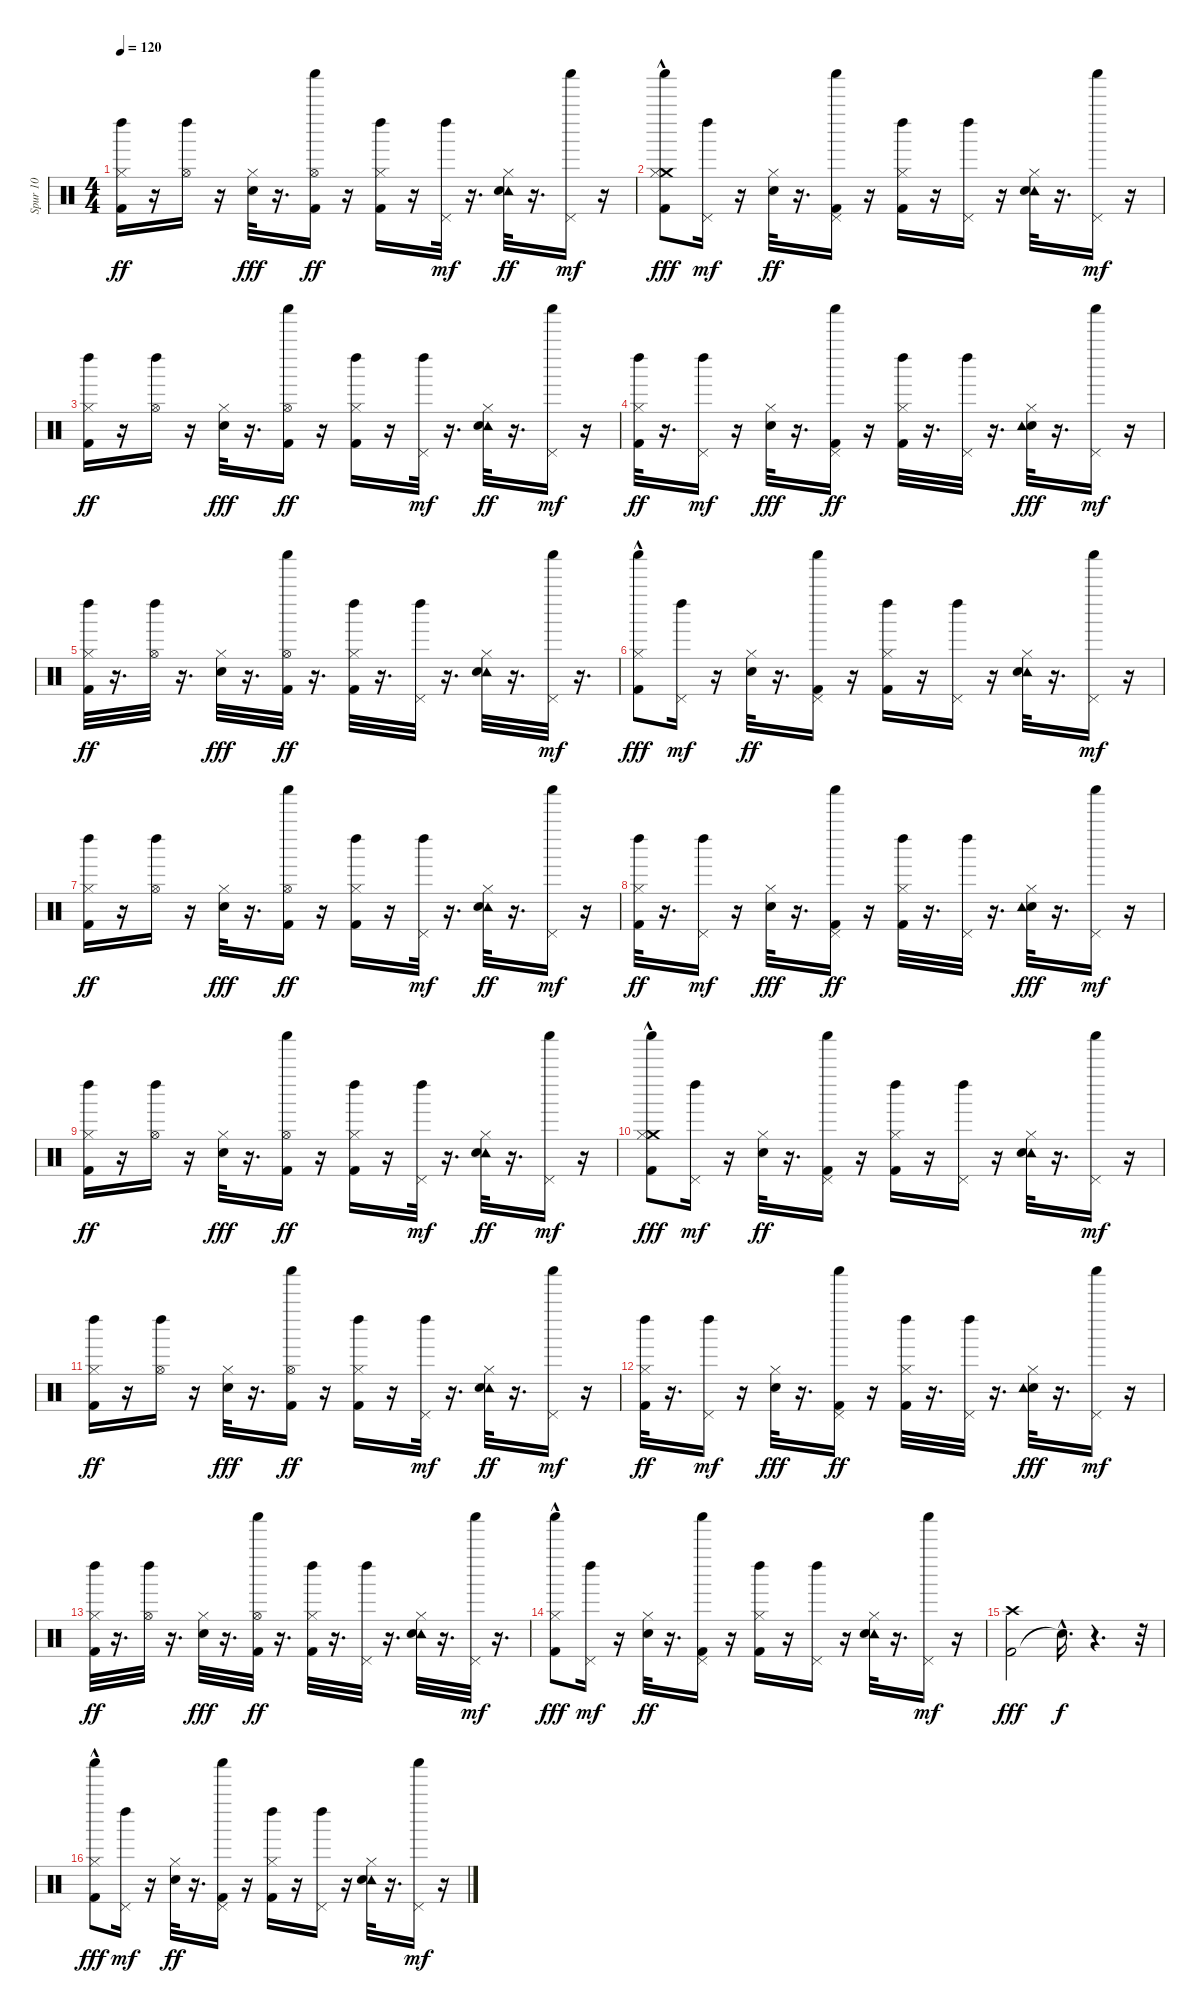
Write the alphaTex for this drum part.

\track ("Spur 10" "Spur 10") {instrument percussion}
\staff {score}
\articulation defaults
\ts (4 4)
\tempo 120
\clef neutral
\ks c
("Kick (hit) 2" "Hi-Hat (closed)" "Left Maraca (hit)").16{dy ff} r.16 ("Left Maraca (hit)" "Hi-Hat (open)").16 r.16 ("Hi-Hat (closed)" "Electric Snare (hit)").32{dy fff} r.16{d} ("Shaker (hit)" "Hi-Hat (open)" "Kick (hit) 2").16{dy ff} r.16 ("Left Maraca (hit)" "Hi-Hat (closed)" "Kick (hit) 2").16 r.16 ("Left Maraca (hit)" "Pedal Hi-Hat (hit)").32{dy mf} r.16{d} ("Tambourine (hit)" "Electric Snare (hit)" "Hi-Hat (closed)").32{dy ff} r.16{d} ("Shaker (hit)" "Pedal Hi-Hat (hit)").16{dy mf} r.16 |
("Crash medium (hit)" "Shaker (hit)"{hac} "Kick (hit) 2" "Hi-Hat (closed)").8{dy fff} ("Left Maraca (hit)" "Pedal Hi-Hat (hit)").16{dy mf} r.16 ("Electric Snare (hit)" "Hi-Hat (closed)").32{dy ff} r.16{d} ("Shaker (hit)" "Kick (hit) 2" "Pedal Hi-Hat (hit)").16 r.16 ("Left Maraca (hit)" "Hi-Hat (closed)" "Kick (hit) 2").16 r.16 ("Left Maraca (hit)" "Pedal Hi-Hat (hit)").16 r.16 ("Tambourine (hit)" "Electric Snare (hit)" "Hi-Hat (closed)").32 r.16{d} ("Pedal Hi-Hat (hit)" "Shaker (hit)").16{dy mf} r.16 |
("Kick (hit) 2" "Hi-Hat (closed)" "Left Maraca (hit)").16{dy ff} r.16 ("Left Maraca (hit)" "Hi-Hat (open)").16 r.16 ("Hi-Hat (closed)" "Electric Snare (hit)").32{dy fff} r.16{d} ("Shaker (hit)" "Hi-Hat (open)" "Kick (hit) 2").16{dy ff} r.16 ("Left Maraca (hit)" "Hi-Hat (closed)" "Kick (hit) 2").16 r.16 ("Left Maraca (hit)" "Pedal Hi-Hat (hit)").32{dy mf} r.16{d} ("Tambourine (hit)" "Electric Snare (hit)" "Hi-Hat (closed)").32{dy ff} r.16{d} ("Shaker (hit)" "Pedal Hi-Hat (hit)").16{dy mf} r.16 |
("Kick (hit) 2" "Hi-Hat (closed)" "Left Maraca (hit)").32{dy ff} r.16{d} ("Left Maraca (hit)" "Pedal Hi-Hat (hit)").16{dy mf} r.16 ("Hi-Hat (closed)" "Electric Snare (hit)").32{dy fff} r.16{d} ("Shaker (hit)" "Kick (hit) 2" "Pedal Hi-Hat (hit)").16{dy ff} r.16 ("Left Maraca (hit)" "Hi-Hat (closed)" "Kick (hit) 2").32 r.16{d} ("Pedal Hi-Hat (hit)" "Left Maraca (hit)").32 r.16{d} ("Hi-Hat (closed)" "Electric Snare (hit)" "Tambourine (hit)").32{dy fff} r.16{d} ("Shaker (hit)" "Pedal Hi-Hat (hit)").16{dy mf} r.16 |
("Kick (hit) 2" "Hi-Hat (closed)" "Left Maraca (hit)").32{dy ff} r.16{d} ("Left Maraca (hit)" "Hi-Hat (open)").32 r.16{d} ("Electric Snare (hit)" "Hi-Hat (closed)").32{dy fff} r.16{d} ("Hi-Hat (open)" "Kick (hit) 2" "Shaker (hit)").32{dy ff} r.16{d} ("Left Maraca (hit)" "Hi-Hat (closed)" "Kick (hit) 2").32 r.16{d} ("Left Maraca (hit)" "Pedal Hi-Hat (hit)").32 r.16{d} ("Tambourine (hit)" "Electric Snare (hit)" "Hi-Hat (closed)").32 r.16{d} ("Pedal Hi-Hat (hit)" "Shaker (hit)").32{dy mf} r.16{d} |
("Shaker (hit)"{hac} "Kick (hit) 2" "Hi-Hat (closed)").8{dy fff} ("Left Maraca (hit)" "Pedal Hi-Hat (hit)").16{dy mf} r.16 ("Electric Snare (hit)" "Hi-Hat (closed)").32{dy ff} r.16{d} ("Shaker (hit)" "Kick (hit) 2" "Pedal Hi-Hat (hit)").16 r.16 ("Left Maraca (hit)" "Hi-Hat (closed)" "Kick (hit) 2").16 r.16 ("Left Maraca (hit)" "Pedal Hi-Hat (hit)").16 r.16 ("Tambourine (hit)" "Electric Snare (hit)" "Hi-Hat (closed)").32 r.16{d} ("Pedal Hi-Hat (hit)" "Shaker (hit)").16{dy mf} r.16 |
("Kick (hit) 2" "Hi-Hat (closed)" "Left Maraca (hit)").16{dy ff} r.16 ("Left Maraca (hit)" "Hi-Hat (open)").16 r.16 ("Hi-Hat (closed)" "Electric Snare (hit)").32{dy fff} r.16{d} ("Shaker (hit)" "Hi-Hat (open)" "Kick (hit) 2").16{dy ff} r.16 ("Left Maraca (hit)" "Hi-Hat (closed)" "Kick (hit) 2").16 r.16 ("Left Maraca (hit)" "Pedal Hi-Hat (hit)").32{dy mf} r.16{d} ("Tambourine (hit)" "Electric Snare (hit)" "Hi-Hat (closed)").32{dy ff} r.16{d} ("Shaker (hit)" "Pedal Hi-Hat (hit)").16{dy mf} r.16 |
("Kick (hit) 2" "Hi-Hat (closed)" "Left Maraca (hit)").32{dy ff} r.16{d} ("Left Maraca (hit)" "Pedal Hi-Hat (hit)").16{dy mf} r.16 ("Hi-Hat (closed)" "Electric Snare (hit)").32{dy fff} r.16{d} ("Shaker (hit)" "Kick (hit) 2" "Pedal Hi-Hat (hit)").16{dy ff} r.16 ("Left Maraca (hit)" "Hi-Hat (closed)" "Kick (hit) 2").32 r.16{d} ("Pedal Hi-Hat (hit)" "Left Maraca (hit)").32 r.16{d} ("Hi-Hat (closed)" "Electric Snare (hit)" "Tambourine (hit)").32{dy fff} r.16{d} ("Shaker (hit)" "Pedal Hi-Hat (hit)").16{dy mf} r.16 |
("Kick (hit) 2" "Hi-Hat (closed)" "Left Maraca (hit)").16{dy ff} r.16 ("Left Maraca (hit)" "Hi-Hat (open)").16 r.16 ("Hi-Hat (closed)" "Electric Snare (hit)").32{dy fff} r.16{d} ("Shaker (hit)" "Hi-Hat (open)" "Kick (hit) 2").16{dy ff} r.16 ("Left Maraca (hit)" "Hi-Hat (closed)" "Kick (hit) 2").16 r.16 ("Left Maraca (hit)" "Pedal Hi-Hat (hit)").32{dy mf} r.16{d} ("Tambourine (hit)" "Electric Snare (hit)" "Hi-Hat (closed)").32{dy ff} r.16{d} ("Shaker (hit)" "Pedal Hi-Hat (hit)").16{dy mf} r.16 |
("Crash medium (hit)" "Shaker (hit)"{hac} "Kick (hit) 2" "Hi-Hat (closed)").8{dy fff} ("Left Maraca (hit)" "Pedal Hi-Hat (hit)").16{dy mf} r.16 ("Electric Snare (hit)" "Hi-Hat (closed)").32{dy ff} r.16{d} ("Shaker (hit)" "Kick (hit) 2" "Pedal Hi-Hat (hit)").16 r.16 ("Left Maraca (hit)" "Hi-Hat (closed)" "Kick (hit) 2").16 r.16 ("Left Maraca (hit)" "Pedal Hi-Hat (hit)").16 r.16 ("Tambourine (hit)" "Electric Snare (hit)" "Hi-Hat (closed)").32 r.16{d} ("Pedal Hi-Hat (hit)" "Shaker (hit)").16{dy mf} r.16 |
("Kick (hit) 2" "Hi-Hat (closed)" "Left Maraca (hit)").16{dy ff} r.16 ("Left Maraca (hit)" "Hi-Hat (open)").16 r.16 ("Hi-Hat (closed)" "Electric Snare (hit)").32{dy fff} r.16{d} ("Shaker (hit)" "Hi-Hat (open)" "Kick (hit) 2").16{dy ff} r.16 ("Left Maraca (hit)" "Hi-Hat (closed)" "Kick (hit) 2").16 r.16 ("Left Maraca (hit)" "Pedal Hi-Hat (hit)").32{dy mf} r.16{d} ("Tambourine (hit)" "Electric Snare (hit)" "Hi-Hat (closed)").32{dy ff} r.16{d} ("Shaker (hit)" "Pedal Hi-Hat (hit)").16{dy mf} r.16 |
("Kick (hit) 2" "Hi-Hat (closed)" "Left Maraca (hit)").32{dy ff} r.16{d} ("Left Maraca (hit)" "Pedal Hi-Hat (hit)").16{dy mf} r.16 ("Hi-Hat (closed)" "Electric Snare (hit)").32{dy fff} r.16{d} ("Shaker (hit)" "Kick (hit) 2" "Pedal Hi-Hat (hit)").16{dy ff} r.16 ("Left Maraca (hit)" "Hi-Hat (closed)" "Kick (hit) 2").32 r.16{d} ("Pedal Hi-Hat (hit)" "Left Maraca (hit)").32 r.16{d} ("Hi-Hat (closed)" "Electric Snare (hit)" "Tambourine (hit)").32{dy fff} r.16{d} ("Shaker (hit)" "Pedal Hi-Hat (hit)").16{dy mf} r.16 |
("Kick (hit) 2" "Hi-Hat (closed)" "Left Maraca (hit)").32{dy ff} r.16{d} ("Left Maraca (hit)" "Hi-Hat (open)").32 r.16{d} ("Electric Snare (hit)" "Hi-Hat (closed)").32{dy fff} r.16{d} ("Hi-Hat (open)" "Kick (hit) 2" "Shaker (hit)").32{dy ff} r.16{d} ("Left Maraca (hit)" "Hi-Hat (closed)" "Kick (hit) 2").32 r.16{d} ("Left Maraca (hit)" "Pedal Hi-Hat (hit)").32 r.16{d} ("Tambourine (hit)" "Electric Snare (hit)" "Hi-Hat (closed)").32 r.16{d} ("Pedal Hi-Hat (hit)" "Shaker (hit)").32{dy mf} r.16{d} |
("Shaker (hit)"{hac} "Kick (hit) 2" "Hi-Hat (closed)").8{dy fff} ("Left Maraca (hit)" "Pedal Hi-Hat (hit)").16{dy mf} r.16 ("Electric Snare (hit)" "Hi-Hat (closed)").32{dy ff} r.16{d} ("Shaker (hit)" "Kick (hit) 2" "Pedal Hi-Hat (hit)").16 r.16 ("Left Maraca (hit)" "Hi-Hat (closed)" "Kick (hit) 2").16 r.16 ("Left Maraca (hit)" "Pedal Hi-Hat (hit)").16 r.16 ("Tambourine (hit)" "Electric Snare (hit)" "Hi-Hat (closed)").32 r.16{d} ("Pedal Hi-Hat (hit)" "Shaker (hit)").16{dy mf} r.16 |
("Kick (hit) 2" "Crash high (hit)").2{dy fff} "Snare (hit)"{hac t}.16{d dy f} r.4{d} r.32 |
("Shaker (hit)"{hac} "Kick (hit) 2" "Hi-Hat (closed)").8{dy fff} ("Left Maraca (hit)" "Pedal Hi-Hat (hit)").16{dy mf} r.16 ("Electric Snare (hit)" "Hi-Hat (closed)").32{dy ff} r.16{d} ("Shaker (hit)" "Kick (hit) 2" "Pedal Hi-Hat (hit)").16 r.16 ("Left Maraca (hit)" "Hi-Hat (closed)" "Kick (hit) 2").16 r.16 ("Left Maraca (hit)" "Pedal Hi-Hat (hit)").16 r.16 ("Tambourine (hit)" "Electric Snare (hit)" "Hi-Hat (closed)").32 r.16{d} ("Pedal Hi-Hat (hit)" "Shaker (hit)").16{dy mf} r.16
